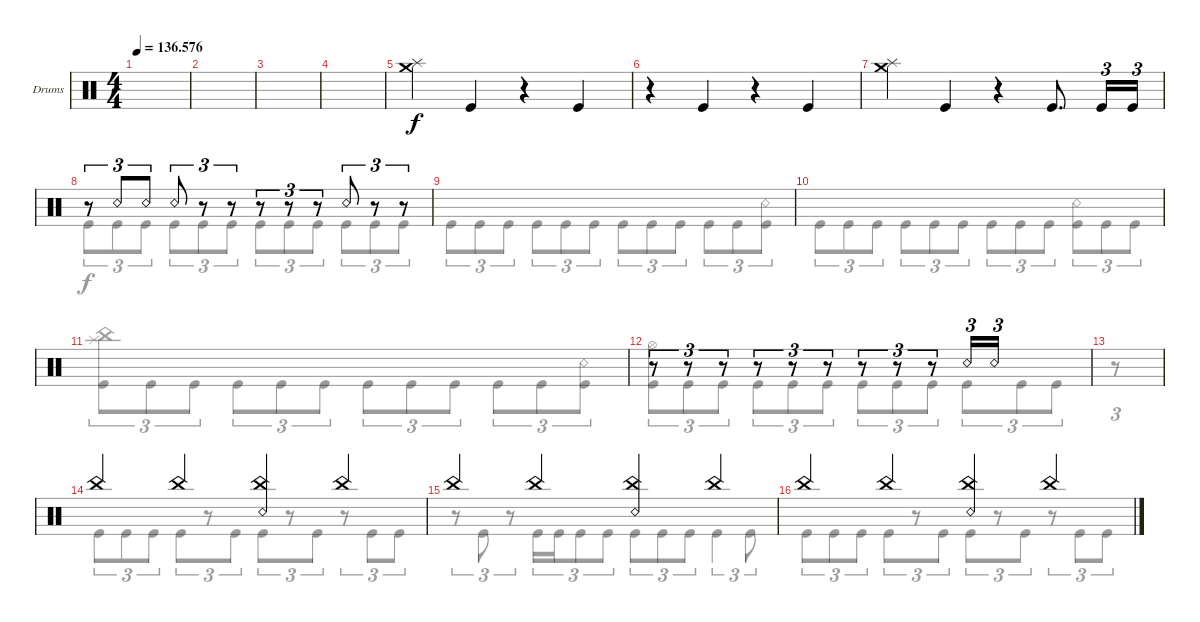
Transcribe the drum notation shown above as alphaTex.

\bracketExtendMode groupsimilarinstruments
\firstSystemTrackNameOrientation horizontal
\otherSystemsTrackNameOrientation horizontal
\track ("Drumkit" "Drums") {instrument percussion}
\staff {score}
\articulation defaults
\voice
\ts (4 4)
\tempo
136.576
\accidentals auto
\clef neutral
\ottava regular
\simile none
\ks c
|
|
|
|
("Splash (hit)" "Crash medium (hit)").4 "Kick (hit)".4 r.4 "Kick (hit)".4 |
r.4 "Kick (hit)".4 r.4 "Kick (hit)".4 |
("Splash (hit)" "Crash medium (hit)").4 "Kick (hit)".4 r.4 "Kick (hit)".8{d} "Kick (hit)".16{tu (3 2)} "Kick (hit)".16{tu (3 2)} |
r.8{tu (3 2)} "Snare (rim shot)".8{tu (3 2)} "Snare (rim shot)".8{tu (3 2)} "Snare (rim shot)".8{tu (3 2)} r.8{tu (3 2)} r.8{tu (3 2)} r.8{tu (3 2)} r.8{tu (3 2)} r.8{tu (3 2)} "Snare (rim shot)".8{tu (3 2)} r.8{tu (3 2)} r.8{tu (3 2)} |
|
|
|
r.8{tu (3 2)} r.8{tu (3 2)} r.8{tu (3 2)} r.8{tu (3 2)} r.8{tu (3 2)} r.8{tu (3 2)} r.8{tu (3 2)} r.8{tu (3 2)} r.8{tu (3 2)} "Snare (rim shot)".16{tu (3 2)} "Snare (rim shot)".16{tu (3 2)} |
|
"China (hit)".4 "China (hit)".4 ("China (hit)" "Snare (rim shot)").4 "China (hit)".4 |
"China (hit)".4 "China (hit)".4 ("China (hit)" "Snare (rim shot)").4 "China (hit)".4 |
"China (hit)".4 "China (hit)".4 ("China (hit)" "Snare (rim shot)").4 "China (hit)".4
\voice
\clef neutral
\ottava regular
\simile none
\ks c
|
|
|
|
|
|
|
"Kick (hit)".8{tu (3 2)} "Kick (hit)".8{tu (3 2)} "Kick (hit)".8{tu (3 2)} "Kick (hit)".8{tu (3 2)} "Kick (hit)".8{tu (3 2)} "Kick (hit)".8{tu (3 2)} "Kick (hit)".8{tu (3 2)} "Kick (hit)".8{tu (3 2)} "Kick (hit)".8{tu (3 2)} "Kick (hit)".8{tu (3 2)} "Kick (hit)".8{tu (3 2)} "Kick (hit)".8{tu (3 2)} |
"Kick (hit)".8{tu (3 2)} "Kick (hit)".8{tu (3 2)} "Kick (hit)".8{tu (3 2)} "Kick (hit)".8{tu (3 2)} "Kick (hit)".8{tu (3 2)} "Kick (hit)".8{tu (3 2)} "Kick (hit)".8{tu (3 2)} "Kick (hit)".8{tu (3 2)} "Kick (hit)".8{tu (3 2)} "Kick (hit)".8{tu (3 2)} "Kick (hit)".8{tu (3 2)} ("Kick (hit)" "Snare (rim shot)").8{tu (3 2)} |
"Kick (hit)".8{tu (3 2)} "Kick (hit)".8{tu (3 2)} "Kick (hit)".8{tu (3 2)} "Kick (hit)".8{tu (3 2)} "Kick (hit)".8{tu (3 2)} "Kick (hit)".8{tu (3 2)} "Kick (hit)".8{tu (3 2)} "Kick (hit)".8{tu (3 2)} "Kick (hit)".8{tu (3 2)} ("Kick (hit)" "Snare (rim shot)").8{tu (3 2)} "Kick (hit)".8{tu (3 2)} "Kick (hit)".8{tu (3 2)} |
("Kick (hit)" "China (hit)" "Splash (hit)").8{tu (3 2)} "Kick (hit)".8{tu (3 2)} "Kick (hit)".8{tu (3 2)} "Kick (hit)".8{tu (3 2)} "Kick (hit)".8{tu (3 2)} "Kick (hit)".8{tu (3 2)} "Kick (hit)".8{tu (3 2)} "Kick (hit)".8{tu (3 2)} "Kick (hit)".8{tu (3 2)} "Kick (hit)".8{tu (3 2)} "Kick (hit)".8{tu (3 2)} ("Kick (hit)" "Snare (rim shot)").8{tu (3 2)} |
("Kick (hit)" "Hi-Hat (open)").8{tu (3 2)} "Kick (hit)".8{tu (3 2)} "Kick (hit)".8{tu (3 2)} "Kick (hit)".8{tu (3 2)} "Kick (hit)".8{tu (3 2)} "Kick (hit)".8{tu (3 2)} "Kick (hit)".8{tu (3 2)} "Kick (hit)".8{tu (3 2)} "Kick (hit)".8{tu (3 2)} "Kick (hit)".8{tu (3 2)} "Kick (hit)".8{tu (3 2)} "Kick (hit)".8{tu (3 2)} |
r.8{tu (3 2)} |
"Kick (hit)".8{tu (3 2)} "Kick (hit)".8{tu (3 2)} "Kick (hit)".8{tu (3 2)} "Kick (hit)".8{tu (3 2)} r.8{tu (3 2)} "Kick (hit)".8{tu (3 2)} "Kick (hit)".8{tu (3 2)} r.8{tu (3 2)} "Kick (hit)".8{tu (3 2)} r.8{tu (3 2)} "Kick (hit)".8{tu (3 2)} "Kick (hit)".8{tu (3 2)} |
r.8{tu (3 2)} "Kick (hit)".8{tu (3 2)} r.8{tu (3 2)} "Kick (hit)".16{tu (3 2)} "Kick (hit)".16{tu (3 2)} "Kick (hit)".8{tu (3 2)} "Kick (hit)".8{tu (3 2)} "Kick (hit)".8{tu (3 2)} "Kick (hit)".8{tu (3 2)} "Kick (hit)".8{tu (3 2)} "Kick (hit)".4{tu (3 2)} "Kick (hit)".8{tu (3 2)} |
"Kick (hit)".8{tu (3 2)} "Kick (hit)".8{tu (3 2)} "Kick (hit)".8{tu (3 2)} "Kick (hit)".8{tu (3 2)} r.8{tu (3 2)} "Kick (hit)".8{tu (3 2)} "Kick (hit)".8{tu (3 2)} r.8{tu (3 2)} "Kick (hit)".8{tu (3 2)} r.8{tu (3 2)} "Kick (hit)".8{tu (3 2)} "Kick (hit)".8{tu (3 2)}
